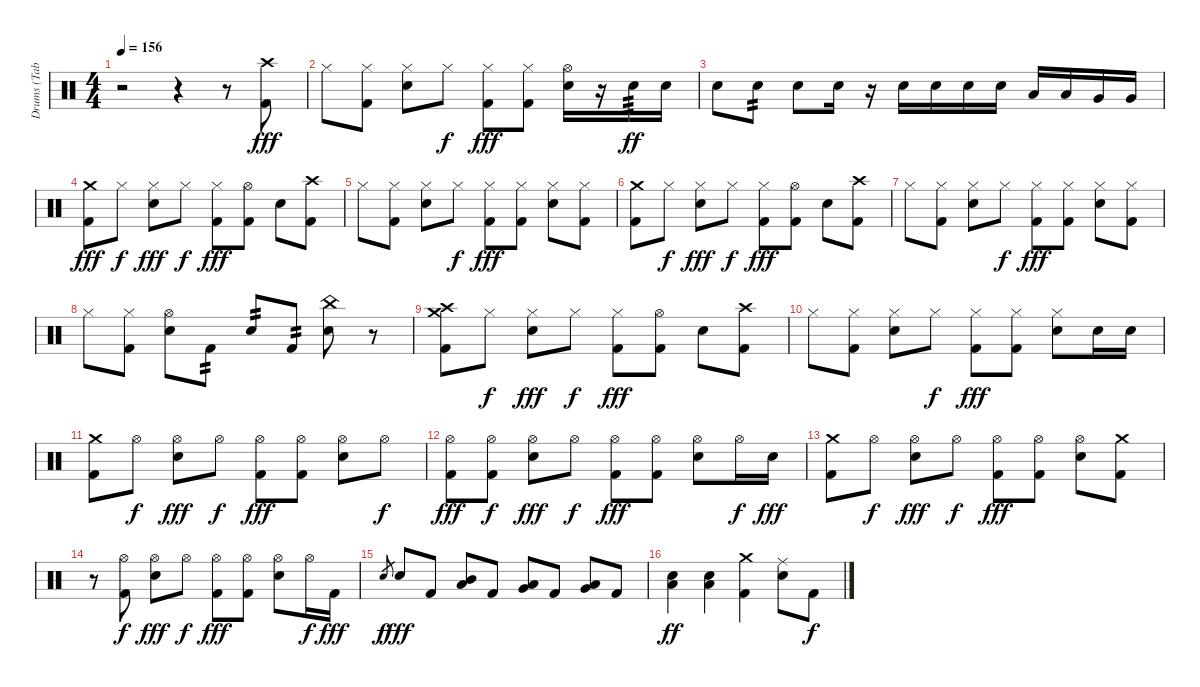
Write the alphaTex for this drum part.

\track ("Drums (Tab By Drumminger)" "Drums (Tab") {instrument percussion}
\staff {score}
\articulation defaults
\ts (4 4)
\tempo 156
\clef neutral
\ks c
r.2{dy fff} r.4 r.8 ("Crash high (hit)" "Kick (hit) 2").8 |
"Hi-Hat (closed)".8 ("Hi-Hat (closed)" "Kick (hit) 2").8 ("Hi-Hat (closed)" "Snare (hit) 2").8 "Hi-Hat (closed)".8{dy f} ("Hi-Hat (closed)" "Kick (hit) 2").8{dy fff} ("Hi-Hat (closed)" "Kick (hit) 2").8 ("Hi-Hat (open)" "Snare (hit) 2").16 r.16 "Snare (hit) 2".16{tp 3 dy ff} "Snare (hit) 2".16 |
"Snare (hit) 2".8 "Snare (hit) 2".8{tp 2} "Snare (hit) 2".8 "Snare (hit) 2".16 r.16 "Snare (hit) 2".16 "Snare (hit) 2".16 "Snare (hit) 2".16 "Snare (hit) 2".16 "Low Tom (hit)".16 "Low Tom (hit)".16 "Very Low Tom (hit)".16 "Very Low Tom (hit)".16 |
("Crash medium (hit)" "Kick (hit) 2").8{dy fff} "Hi-Hat (closed)".8{dy f} ("Hi-Hat (closed)" "Snare (hit) 2").8{dy fff} "Hi-Hat (closed)".8{dy f} ("Hi-Hat (closed)" "Kick (hit) 2").8{dy fff} ("Hi-Hat (open)" "Kick (hit) 2").8 "Snare (hit) 2".8 ("Crash high (hit)" "Kick (hit) 2").8 |
"Hi-Hat (closed)".8 ("Hi-Hat (closed)" "Kick (hit) 2").8 ("Hi-Hat (closed)" "Snare (hit) 2").8 "Hi-Hat (closed)".8{dy f} ("Hi-Hat (closed)" "Kick (hit) 2").8{dy fff} ("Hi-Hat (closed)" "Kick (hit) 2").8 ("Hi-Hat (closed)" "Snare (hit) 2").8 ("Hi-Hat (closed)" "Kick (hit) 2").8 |
("Crash medium (hit)" "Kick (hit) 2").8 "Hi-Hat (closed)".8{dy f} ("Hi-Hat (closed)" "Snare (hit) 2").8{dy fff} "Hi-Hat (closed)".8{dy f} ("Hi-Hat (closed)" "Kick (hit) 2").8{dy fff} ("Hi-Hat (open)" "Kick (hit) 2").8 "Snare (hit) 2".8 ("Crash high (hit)" "Kick (hit) 2").8 |
"Hi-Hat (closed)".8 ("Hi-Hat (closed)" "Kick (hit) 2").8 ("Hi-Hat (closed)" "Snare (hit) 2").8 "Hi-Hat (closed)".8{dy f} ("Hi-Hat (closed)" "Kick (hit) 2").8{dy fff} ("Hi-Hat (closed)" "Kick (hit) 2").8 ("Hi-Hat (closed)" "Snare (hit) 2").8 ("Hi-Hat (closed)" "Kick (hit) 2").8 |
"Hi-Hat (closed)".8 ("Hi-Hat (closed)" "Kick (hit) 2").8 ("Hi-Hat (open)" "Snare (hit) 2").8 "Kick (hit) 2".8{tp 2} "Snare (hit) 2".8{tp 2} "Kick (hit) 2".8{tp 2} ("China (hit)" "Snare (hit) 2").8 r.8 |
("Crash medium (hit)" "Crash high (hit)" "Kick (hit) 2").8 "Hi-Hat (closed)".8{dy f} ("Hi-Hat (closed)" "Snare (hit) 2").8{dy fff} "Hi-Hat (closed)".8{dy f} ("Hi-Hat (closed)" "Kick (hit) 2").8{dy fff} ("Hi-Hat (open)" "Kick (hit) 2").8 "Snare (hit) 2".8 ("Crash high (hit)" "Kick (hit) 2").8 |
"Hi-Hat (closed)".8 ("Hi-Hat (closed)" "Kick (hit) 2").8 ("Hi-Hat (closed)" "Snare (hit) 2").8 "Hi-Hat (closed)".8{dy f} ("Hi-Hat (closed)" "Kick (hit) 2").8{dy fff} ("Hi-Hat (closed)" "Kick (hit) 2").8 ("Hi-Hat (closed)" "Snare (hit) 2").8 "Snare (hit) 2".16 "Snare (hit) 2".16 |
("Crash medium (hit)" "Kick (hit) 2").8 "Hi-Hat (open)".8{dy f} ("Hi-Hat (open)" "Snare (hit) 2").8{dy fff} "Hi-Hat (open)".8{dy f} ("Hi-Hat (open)" "Kick (hit) 2").8{dy fff} ("Hi-Hat (open)" "Kick (hit) 2").8 ("Hi-Hat (open)" "Snare (hit) 2").8 "Hi-Hat (open)".8{dy f} |
("Hi-Hat (open)" "Kick (hit) 2").8{dy fff} ("Hi-Hat (open)" "Kick (hit) 2").8{dy f} ("Hi-Hat (open)" "Snare (hit) 2").8{dy fff} "Hi-Hat (open)".8{dy f} ("Hi-Hat (open)" "Kick (hit) 2").8{dy fff} ("Hi-Hat (open)" "Kick (hit) 2").8 ("Hi-Hat (open)" "Snare (hit) 2").8 "Hi-Hat (open)".16{dy f} "Snare (hit) 2".16{dy fff} |
("Crash medium (hit)" "Kick (hit) 2").8 "Hi-Hat (open)".8{dy f} ("Hi-Hat (open)" "Snare (hit) 2").8{dy fff} "Hi-Hat (open)".8{dy f} ("Hi-Hat (open)" "Kick (hit) 2").8{dy fff} ("Hi-Hat (open)" "Kick (hit) 2").8 ("Hi-Hat (open)" "Snare (hit) 2").8 ("Crash medium (hit)" "Kick (hit) 2").8 |
r.8 ("Hi-Hat (open)" "Kick (hit) 2").8{dy f} ("Hi-Hat (open)" "Snare (hit) 2").8{dy fff} "Hi-Hat (open)".8{dy f} ("Hi-Hat (open)" "Kick (hit) 2").8{dy fff} ("Hi-Hat (open)" "Kick (hit) 2").8 ("Hi-Hat (open)" "Snare (hit) 2").8 "Hi-Hat (open)".16{dy f} "Kick (hit) 2".16{dy fff} |
"Snare (hit) 2".8{gr dy f} "Snare (hit) 2".8{dy fff} "Kick (hit) 2".8 ("Mid Tom (hit)" "Low Tom (hit)").8 "Kick (hit) 2".8 ("Low Tom (hit)" "Very Low Tom (hit)").8 "Kick (hit) 2".8 ("Very Low Tom (hit)" "Low Floor Tom (hit)").8 "Kick (hit) 2".8 |
("Low Floor Tom (hit)" "Snare (hit) 2").4{dy ff} ("Low Floor Tom (hit)" "Snare (hit) 2").4 ("Crash medium (hit)" "Kick (hit) 2").4 ("Ride (middle)" "Snare (hit) 2").8 "Kick (hit) 2".8{dy f}
